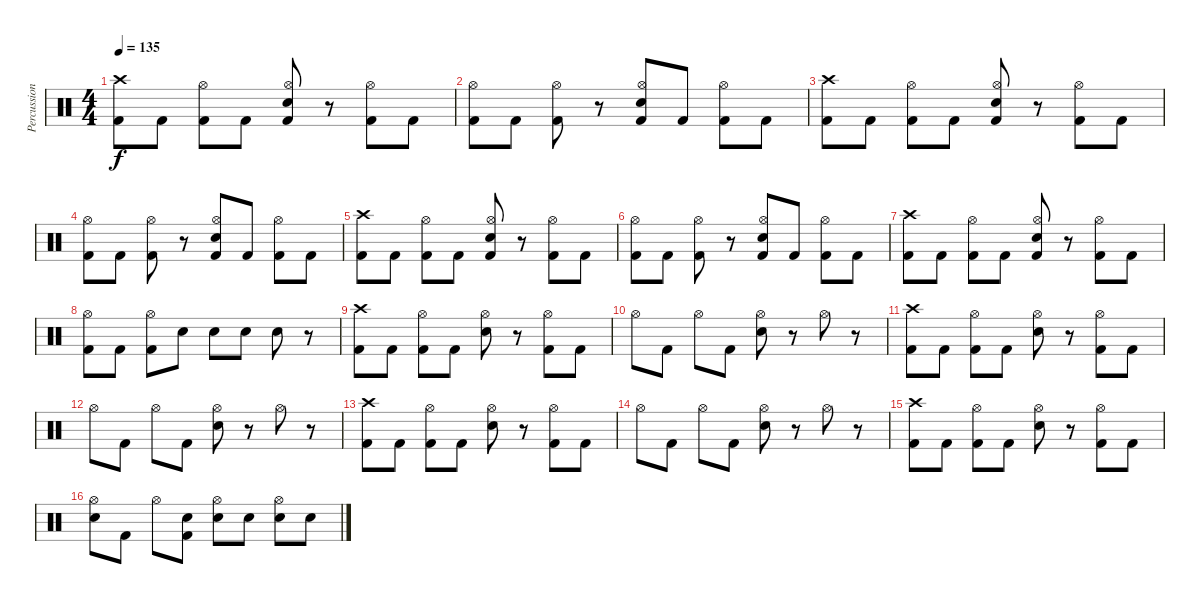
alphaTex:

\track ("Percussion" "Percussion") {instrument percussion}
\staff {score}
\articulation defaults
\ts (4 4)
\tempo 135
\clef neutral
\ks c
("Crash high (hit)" "Kick (hit) 2").8{dy f} "Kick (hit) 2".8 ("Hi-Hat (open)" "Kick (hit) 2").8 "Kick (hit) 2".8 ("Hi-Hat (open)" "Snare (hit) 2" "Kick (hit) 2").8 r.8 ("Hi-Hat (open)" "Kick (hit) 2").8 "Kick (hit) 2".8 |
("Hi-Hat (open)" "Kick (hit) 2").8 "Kick (hit) 2".8 ("Hi-Hat (open)" "Kick (hit) 2").8 r.8 ("Hi-Hat (open)" "Snare (hit) 2" "Kick (hit) 2").8 "Kick (hit) 2".8 ("Hi-Hat (open)" "Kick (hit) 2").8 "Kick (hit) 2".8 |
("Crash high (hit)" "Kick (hit) 2").8 "Kick (hit) 2".8 ("Hi-Hat (open)" "Kick (hit) 2").8 "Kick (hit) 2".8 ("Hi-Hat (open)" "Snare (hit) 2" "Kick (hit) 2").8 r.8 ("Hi-Hat (open)" "Kick (hit) 2").8 "Kick (hit) 2".8 |
("Hi-Hat (open)" "Kick (hit) 2").8 "Kick (hit) 2".8 ("Hi-Hat (open)" "Kick (hit) 2").8 r.8 ("Hi-Hat (open)" "Snare (hit) 2" "Kick (hit) 2").8 "Kick (hit) 2".8 ("Hi-Hat (open)" "Kick (hit) 2").8 "Kick (hit) 2".8 |
("Crash high (hit)" "Kick (hit) 2").8 "Kick (hit) 2".8 ("Hi-Hat (open)" "Kick (hit) 2").8 "Kick (hit) 2".8 ("Hi-Hat (open)" "Snare (hit) 2" "Kick (hit) 2").8 r.8 ("Hi-Hat (open)" "Kick (hit) 2").8 "Kick (hit) 2".8 |
("Hi-Hat (open)" "Kick (hit) 2").8 "Kick (hit) 2".8 ("Hi-Hat (open)" "Kick (hit) 2").8 r.8 ("Hi-Hat (open)" "Snare (hit) 2" "Kick (hit) 2").8 "Kick (hit) 2".8 ("Hi-Hat (open)" "Kick (hit) 2").8 "Kick (hit) 2".8 |
("Crash high (hit)" "Kick (hit) 2").8 "Kick (hit) 2".8 ("Hi-Hat (open)" "Kick (hit) 2").8 "Kick (hit) 2".8 ("Hi-Hat (open)" "Snare (hit) 2" "Kick (hit) 2").8 r.8 ("Hi-Hat (open)" "Kick (hit) 2").8 "Kick (hit) 2".8 |
("Hi-Hat (open)" "Kick (hit) 2").8 "Kick (hit) 2".8 ("Hi-Hat (open)" "Kick (hit) 2").8 "Snare (hit) 2".8 "Snare (hit) 2".8 "Snare (hit) 2".8 "Snare (hit) 2".8 r.8 |
("Crash high (hit)" "Kick (hit) 2").8 "Kick (hit) 2".8 ("Hi-Hat (open)" "Kick (hit) 2").8 "Kick (hit) 2".8 ("Hi-Hat (open)" "Snare (hit) 2").8 r.8 ("Hi-Hat (open)" "Kick (hit) 2").8 "Kick (hit) 2".8 |
"Hi-Hat (open)".8 "Kick (hit) 2".8 "Hi-Hat (open)".8 "Kick (hit) 2".8 ("Hi-Hat (open)" "Snare (hit) 2").8 r.8 "Hi-Hat (open)".8 r.8 |
("Crash high (hit)" "Kick (hit) 2").8 "Kick (hit) 2".8 ("Hi-Hat (open)" "Kick (hit) 2").8 "Kick (hit) 2".8 ("Hi-Hat (open)" "Snare (hit) 2").8 r.8 ("Hi-Hat (open)" "Kick (hit) 2").8 "Kick (hit) 2".8 |
"Hi-Hat (open)".8 "Kick (hit) 2".8 "Hi-Hat (open)".8 "Kick (hit) 2".8 ("Hi-Hat (open)" "Snare (hit) 2").8 r.8 "Hi-Hat (open)".8 r.8 |
("Crash high (hit)" "Kick (hit) 2").8 "Kick (hit) 2".8 ("Hi-Hat (open)" "Kick (hit) 2").8 "Kick (hit) 2".8 ("Hi-Hat (open)" "Snare (hit) 2").8 r.8 ("Hi-Hat (open)" "Kick (hit) 2").8 "Kick (hit) 2".8 |
"Hi-Hat (open)".8 "Kick (hit) 2".8 "Hi-Hat (open)".8 "Kick (hit) 2".8 ("Hi-Hat (open)" "Snare (hit) 2").8 r.8 "Hi-Hat (open)".8 r.8 |
("Crash high (hit)" "Kick (hit) 2").8 "Kick (hit) 2".8 ("Hi-Hat (open)" "Kick (hit) 2").8 "Kick (hit) 2".8 ("Hi-Hat (open)" "Snare (hit) 2").8 r.8 ("Hi-Hat (open)" "Kick (hit) 2").8 "Kick (hit) 2".8 |
("Hi-Hat (open)" "Snare (hit) 2").8 "Kick (hit) 2".8 "Hi-Hat (open)".8 ("Snare (hit) 2" "Kick (hit) 2").8 ("Hi-Hat (open)" "Snare (hit) 2").8 "Snare (hit) 2".8 ("Hi-Hat (open)" "Snare (hit) 2").8 "Snare (hit) 2".8
